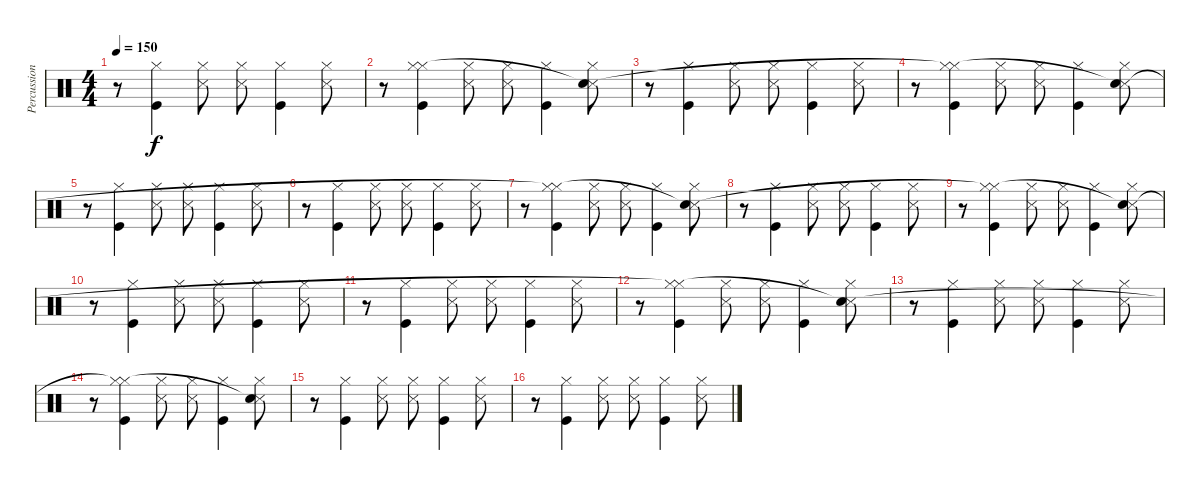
\track ("Percussion" "Percussion") {instrument percussion}
\staff {score}
\articulation defaults
\ts (4 4)
\tempo 150
\clef neutral
\ks c
r.8{dy f} ("Kick (hit)" "Hi-Hat (closed)").4 ("Snare (side stick) 3" "Hi-Hat (closed)").8 ("Snare (side stick) 3" "Hi-Hat (closed)").8 ("Kick (hit)" "Hi-Hat (closed)").4 ("Snare (side stick) 3" "Hi-Hat (closed)").8 |
r.8 ("Kick (hit)" "Hi-Hat (closed)" "Hi-Hat (closed)"{t}).4 ("Snare (side stick) 3" "Hi-Hat (closed)").8 ("Snare (side stick) 3" "Hi-Hat (closed)").8 ("Kick (hit)" "Hi-Hat (closed)").4 ("Snare (side stick) 3" "Hi-Hat (closed)" "Snare (hit)"{t}).8 |
r.8 ("Kick (hit)" "Hi-Hat (closed)").4 ("Snare (side stick) 3" "Hi-Hat (closed)").8 ("Snare (side stick) 3" "Hi-Hat (closed)").8 ("Kick (hit)" "Hi-Hat (closed)").4 ("Snare (side stick) 3" "Hi-Hat (closed)").8 |
r.8 ("Kick (hit)" "Hi-Hat (closed)" "Hi-Hat (closed)"{t}).4 ("Snare (side stick) 3" "Hi-Hat (closed)").8 ("Snare (side stick) 3" "Hi-Hat (closed)").8 ("Kick (hit)" "Hi-Hat (closed)").4 ("Snare (side stick) 3" "Hi-Hat (closed)" "Snare (hit)"{t}).8 |
r.8 ("Kick (hit)" "Hi-Hat (closed)").4 ("Snare (side stick) 3" "Hi-Hat (closed)").8 ("Snare (side stick) 3" "Hi-Hat (closed)").8 ("Kick (hit)" "Hi-Hat (closed)").4 ("Snare (side stick) 3" "Hi-Hat (closed)").8 |
r.8 ("Kick (hit)" "Hi-Hat (closed)").4 ("Snare (side stick) 3" "Hi-Hat (closed)").8 ("Snare (side stick) 3" "Hi-Hat (closed)").8 ("Kick (hit)" "Hi-Hat (closed)").4 ("Snare (side stick) 3" "Hi-Hat (closed)").8 |
r.8 ("Kick (hit)" "Hi-Hat (closed)" "Hi-Hat (closed)"{t}).4 ("Snare (side stick) 3" "Hi-Hat (closed)").8 ("Snare (side stick) 3" "Hi-Hat (closed)").8 ("Kick (hit)" "Hi-Hat (closed)").4 ("Snare (side stick) 3" "Hi-Hat (closed)" "Snare (hit)"{t}).8 |
r.8 ("Kick (hit)" "Hi-Hat (closed)").4 ("Snare (side stick) 3" "Hi-Hat (closed)").8 ("Snare (side stick) 3" "Hi-Hat (closed)").8 ("Kick (hit)" "Hi-Hat (closed)").4 ("Snare (side stick) 3" "Hi-Hat (closed)").8 |
r.8 ("Kick (hit)" "Hi-Hat (closed)" "Hi-Hat (closed)"{t}).4 ("Snare (side stick) 3" "Hi-Hat (closed)").8 ("Snare (side stick) 3" "Hi-Hat (closed)").8 ("Kick (hit)" "Hi-Hat (closed)").4 ("Snare (side stick) 3" "Hi-Hat (closed)" "Snare (hit)"{t}).8 |
r.8 ("Kick (hit)" "Hi-Hat (closed)").4 ("Snare (side stick) 3" "Hi-Hat (closed)").8 ("Snare (side stick) 3" "Hi-Hat (closed)").8 ("Kick (hit)" "Hi-Hat (closed)").4 ("Snare (side stick) 3" "Hi-Hat (closed)").8 |
r.8 ("Kick (hit)" "Hi-Hat (closed)").4 ("Snare (side stick) 3" "Hi-Hat (closed)").8 ("Snare (side stick) 3" "Hi-Hat (closed)").8 ("Kick (hit)" "Hi-Hat (closed)").4 ("Snare (side stick) 3" "Hi-Hat (closed)").8 |
r.8 ("Kick (hit)" "Hi-Hat (closed)" "Hi-Hat (closed)"{t}).4 ("Snare (side stick) 3" "Hi-Hat (closed)").8 ("Snare (side stick) 3" "Hi-Hat (closed)").8 ("Kick (hit)" "Hi-Hat (closed)").4 ("Snare (side stick) 3" "Hi-Hat (closed)" "Snare (hit)"{t}).8 |
r.8 ("Kick (hit)" "Hi-Hat (closed)").4 ("Snare (side stick) 3" "Hi-Hat (closed)").8 ("Snare (side stick) 3" "Hi-Hat (closed)").8 ("Kick (hit)" "Hi-Hat (closed)").4 ("Snare (side stick) 3" "Hi-Hat (closed)").8 |
r.8 ("Kick (hit)" "Hi-Hat (closed)" "Hi-Hat (closed)"{t}).4 ("Snare (side stick) 3" "Hi-Hat (closed)").8 ("Snare (side stick) 3" "Hi-Hat (closed)").8 ("Kick (hit)" "Hi-Hat (closed)").4 ("Snare (side stick) 3" "Hi-Hat (closed)" "Snare (hit)"{t}).8 |
r.8 ("Kick (hit)" "Hi-Hat (closed)").4 ("Snare (side stick) 3" "Hi-Hat (closed)").8 ("Snare (side stick) 3" "Hi-Hat (closed)").8 ("Kick (hit)" "Hi-Hat (closed)").4 ("Snare (side stick) 3" "Hi-Hat (closed)").8 |
r.8 ("Kick (hit)" "Hi-Hat (closed)").4 ("Snare (side stick) 3" "Hi-Hat (closed)").8 ("Snare (side stick) 3" "Hi-Hat (closed)").8 ("Kick (hit)" "Hi-Hat (closed)").4 ("Snare (side stick) 3" "Hi-Hat (closed)").8
